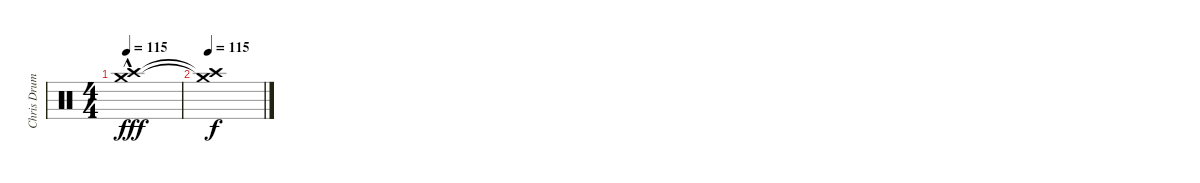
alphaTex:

\track ("Chris Drums" "Chris Drum") {instrument percussion}
\staff {score}
\articulation defaults
\ts (4 4)
\tempo 115
\clef neutral
\ks c
("Crash medium (hit)"{hac} "Crash high (hit)"{hac}).1{dy fff} |
\tempo 115
("Crash medium (hit)"{t} "Crash high (hit)"{t}).1{dy f}
